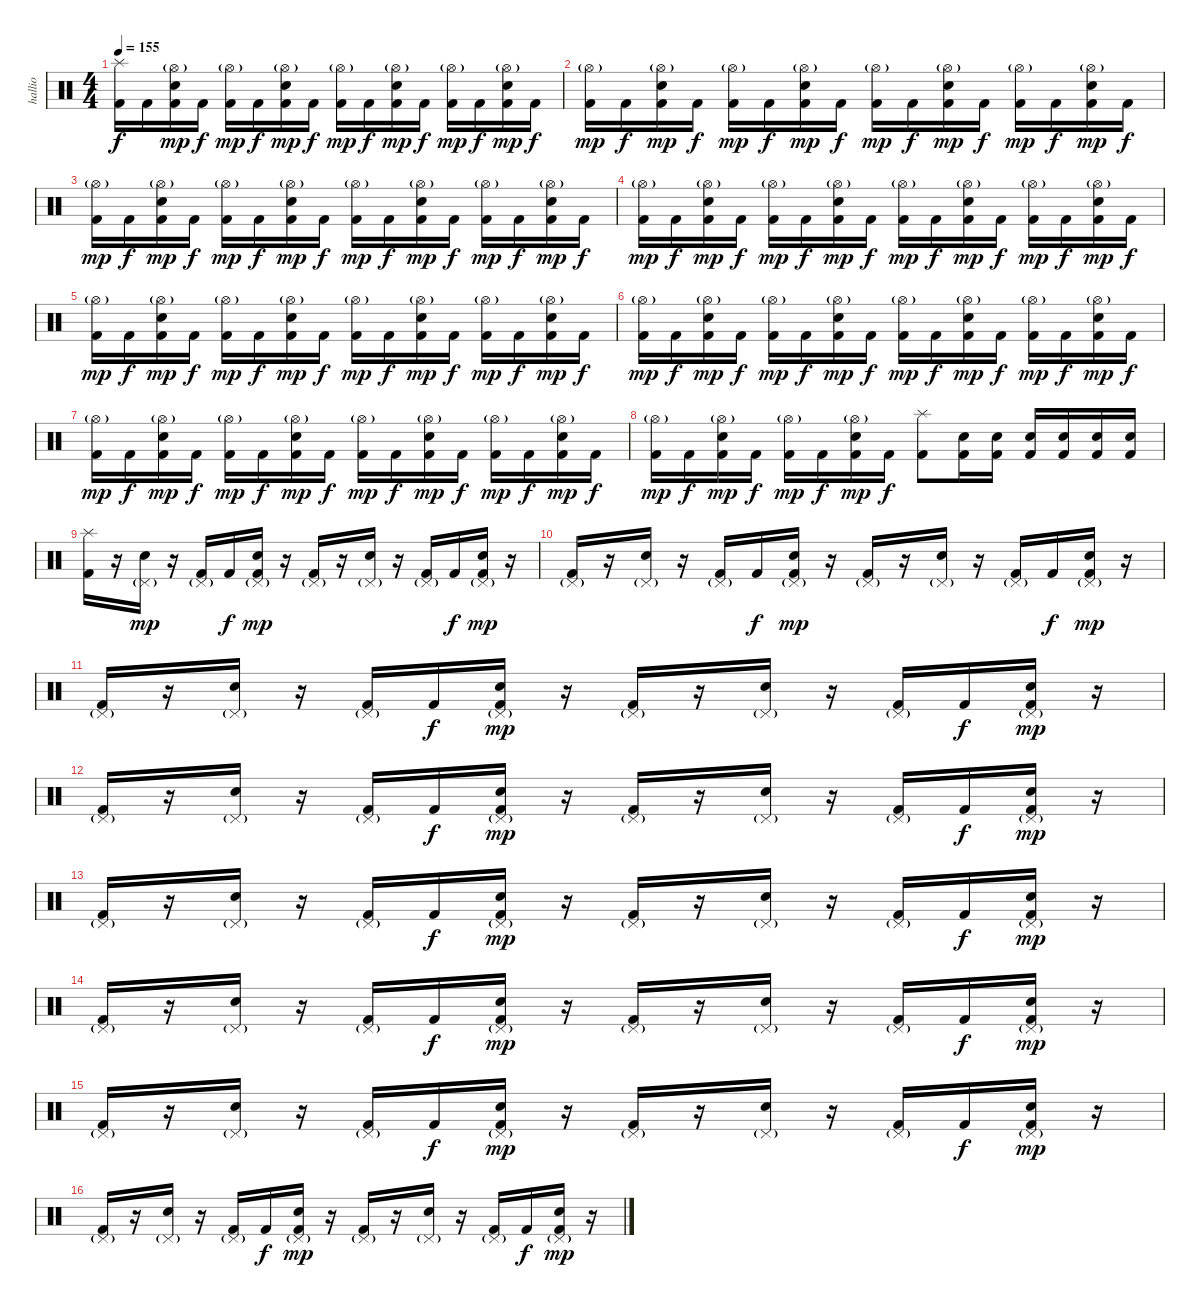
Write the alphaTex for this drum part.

\track ("hallio" "hallio") {instrument percussion}
\staff {score}
\articulation defaults
\ts (4 4)
\tempo 155
\clef neutral
\ks c
("Kick (hit) 2" "Splash (hit)").16{dy f} "Kick (hit) 2".16 ("Kick (hit) 2" "Snare (hit) 2" "Hi-Hat (open)"{g}).16{dy mp} "Kick (hit) 2".16{dy f} ("Kick (hit) 2" "Hi-Hat (open)"{g}).16{dy mp} "Kick (hit) 2".16{dy f} ("Kick (hit) 2" "Snare (hit) 2" "Hi-Hat (open)"{g}).16{dy mp} "Kick (hit) 2".16{dy f} ("Kick (hit) 2" "Hi-Hat (open)"{g}).16{dy mp} "Kick (hit) 2".16{dy f} ("Kick (hit) 2" "Snare (hit) 2" "Hi-Hat (open)"{g}).16{dy mp} "Kick (hit) 2".16{dy f} ("Kick (hit) 2" "Hi-Hat (open)"{g}).16{dy mp} "Kick (hit) 2".16{dy f} ("Kick (hit) 2" "Snare (hit) 2" "Hi-Hat (open)"{g}).16{dy mp} "Kick (hit) 2".16{dy f} |
("Kick (hit) 2" "Hi-Hat (open)"{g}).16{dy mp} "Kick (hit) 2".16{dy f} ("Kick (hit) 2" "Snare (hit) 2" "Hi-Hat (open)"{g}).16{dy mp} "Kick (hit) 2".16{dy f} ("Kick (hit) 2" "Hi-Hat (open)"{g}).16{dy mp} "Kick (hit) 2".16{dy f} ("Kick (hit) 2" "Snare (hit) 2" "Hi-Hat (open)"{g}).16{dy mp} "Kick (hit) 2".16{dy f} ("Kick (hit) 2" "Hi-Hat (open)"{g}).16{dy mp} "Kick (hit) 2".16{dy f} ("Kick (hit) 2" "Snare (hit) 2" "Hi-Hat (open)"{g}).16{dy mp} "Kick (hit) 2".16{dy f} ("Kick (hit) 2" "Hi-Hat (open)"{g}).16{dy mp} "Kick (hit) 2".16{dy f} ("Kick (hit) 2" "Snare (hit) 2" "Hi-Hat (open)"{g}).16{dy mp} "Kick (hit) 2".16{dy f} |
("Kick (hit) 2" "Hi-Hat (open)"{g}).16{dy mp} "Kick (hit) 2".16{dy f} ("Kick (hit) 2" "Snare (hit) 2" "Hi-Hat (open)"{g}).16{dy mp} "Kick (hit) 2".16{dy f} ("Kick (hit) 2" "Hi-Hat (open)"{g}).16{dy mp} "Kick (hit) 2".16{dy f} ("Kick (hit) 2" "Snare (hit) 2" "Hi-Hat (open)"{g}).16{dy mp} "Kick (hit) 2".16{dy f} ("Kick (hit) 2" "Hi-Hat (open)"{g}).16{dy mp} "Kick (hit) 2".16{dy f} ("Kick (hit) 2" "Snare (hit) 2" "Hi-Hat (open)"{g}).16{dy mp} "Kick (hit) 2".16{dy f} ("Kick (hit) 2" "Hi-Hat (open)"{g}).16{dy mp} "Kick (hit) 2".16{dy f} ("Kick (hit) 2" "Snare (hit) 2" "Hi-Hat (open)"{g}).16{dy mp} "Kick (hit) 2".16{dy f} |
("Kick (hit) 2" "Hi-Hat (open)"{g}).16{dy mp} "Kick (hit) 2".16{dy f} ("Kick (hit) 2" "Snare (hit) 2" "Hi-Hat (open)"{g}).16{dy mp} "Kick (hit) 2".16{dy f} ("Kick (hit) 2" "Hi-Hat (open)"{g}).16{dy mp} "Kick (hit) 2".16{dy f} ("Kick (hit) 2" "Snare (hit) 2" "Hi-Hat (open)"{g}).16{dy mp} "Kick (hit) 2".16{dy f} ("Kick (hit) 2" "Hi-Hat (open)"{g}).16{dy mp} "Kick (hit) 2".16{dy f} ("Kick (hit) 2" "Snare (hit) 2" "Hi-Hat (open)"{g}).16{dy mp} "Kick (hit) 2".16{dy f} ("Kick (hit) 2" "Hi-Hat (open)"{g}).16{dy mp} "Kick (hit) 2".16{dy f} ("Kick (hit) 2" "Snare (hit) 2" "Hi-Hat (open)"{g}).16{dy mp} "Kick (hit) 2".16{dy f} |
("Kick (hit) 2" "Hi-Hat (open)"{g}).16{dy mp} "Kick (hit) 2".16{dy f} ("Kick (hit) 2" "Snare (hit) 2" "Hi-Hat (open)"{g}).16{dy mp} "Kick (hit) 2".16{dy f} ("Kick (hit) 2" "Hi-Hat (open)"{g}).16{dy mp} "Kick (hit) 2".16{dy f} ("Kick (hit) 2" "Snare (hit) 2" "Hi-Hat (open)"{g}).16{dy mp} "Kick (hit) 2".16{dy f} ("Kick (hit) 2" "Hi-Hat (open)"{g}).16{dy mp} "Kick (hit) 2".16{dy f} ("Kick (hit) 2" "Snare (hit) 2" "Hi-Hat (open)"{g}).16{dy mp} "Kick (hit) 2".16{dy f} ("Kick (hit) 2" "Hi-Hat (open)"{g}).16{dy mp} "Kick (hit) 2".16{dy f} ("Kick (hit) 2" "Snare (hit) 2" "Hi-Hat (open)"{g}).16{dy mp} "Kick (hit) 2".16{dy f} |
("Kick (hit) 2" "Hi-Hat (open)"{g}).16{dy mp} "Kick (hit) 2".16{dy f} ("Kick (hit) 2" "Snare (hit) 2" "Hi-Hat (open)"{g}).16{dy mp} "Kick (hit) 2".16{dy f} ("Kick (hit) 2" "Hi-Hat (open)"{g}).16{dy mp} "Kick (hit) 2".16{dy f} ("Kick (hit) 2" "Snare (hit) 2" "Hi-Hat (open)"{g}).16{dy mp} "Kick (hit) 2".16{dy f} ("Kick (hit) 2" "Hi-Hat (open)"{g}).16{dy mp} "Kick (hit) 2".16{dy f} ("Kick (hit) 2" "Snare (hit) 2" "Hi-Hat (open)"{g}).16{dy mp} "Kick (hit) 2".16{dy f} ("Kick (hit) 2" "Hi-Hat (open)"{g}).16{dy mp} "Kick (hit) 2".16{dy f} ("Kick (hit) 2" "Snare (hit) 2" "Hi-Hat (open)"{g}).16{dy mp} "Kick (hit) 2".16{dy f} |
("Kick (hit) 2" "Hi-Hat (open)"{g}).16{dy mp} "Kick (hit) 2".16{dy f} ("Kick (hit) 2" "Snare (hit) 2" "Hi-Hat (open)"{g}).16{dy mp} "Kick (hit) 2".16{dy f} ("Kick (hit) 2" "Hi-Hat (open)"{g}).16{dy mp} "Kick (hit) 2".16{dy f} ("Kick (hit) 2" "Snare (hit) 2" "Hi-Hat (open)"{g}).16{dy mp} "Kick (hit) 2".16{dy f} ("Kick (hit) 2" "Hi-Hat (open)"{g}).16{dy mp} "Kick (hit) 2".16{dy f} ("Kick (hit) 2" "Snare (hit) 2" "Hi-Hat (open)"{g}).16{dy mp} "Kick (hit) 2".16{dy f} ("Kick (hit) 2" "Hi-Hat (open)"{g}).16{dy mp} "Kick (hit) 2".16{dy f} ("Kick (hit) 2" "Snare (hit) 2" "Hi-Hat (open)"{g}).16{dy mp} "Kick (hit) 2".16{dy f} |
("Kick (hit) 2" "Hi-Hat (open)"{g}).16{dy mp} "Kick (hit) 2".16{dy f} ("Kick (hit) 2" "Snare (hit) 2" "Hi-Hat (open)"{g}).16{dy mp} "Kick (hit) 2".16{dy f} ("Kick (hit) 2" "Hi-Hat (open)"{g}).16{dy mp} "Kick (hit) 2".16{dy f} ("Kick (hit) 2" "Snare (hit) 2" "Hi-Hat (open)"{g}).16{dy mp} "Kick (hit) 2".16{dy f} ("Kick (hit) 2" "Splash (hit)").8 ("Kick (hit) 2" "Snare (hit) 2").16 ("Kick (hit) 2" "Snare (hit) 2").16 ("Kick (hit) 2" "Snare (hit) 2").16 ("Kick (hit) 2" "Snare (hit) 2").16 ("Kick (hit) 2" "Snare (hit) 2").16 ("Kick (hit) 2" "Snare (hit) 2").16 |
("Kick (hit) 2" "Splash (hit)").16 r.16 ("Snare (hit) 2" "Pedal Hi-Hat (hit)"{g}).16{dy mp} r.16 ("Kick (hit) 2" "Pedal Hi-Hat (hit)"{g}).16 "Kick (hit) 2".16{dy f} ("Kick (hit) 2" "Snare (hit) 2" "Pedal Hi-Hat (hit)"{g}).16{dy mp} r.16 ("Kick (hit) 2" "Pedal Hi-Hat (hit)"{g}).16 r.16 ("Snare (hit) 2" "Pedal Hi-Hat (hit)"{g}).16 r.16 ("Kick (hit) 2" "Pedal Hi-Hat (hit)"{g}).16 "Kick (hit) 2".16{dy f} ("Kick (hit) 2" "Snare (hit) 2" "Pedal Hi-Hat (hit)"{g}).16{dy mp} r.16 |
("Kick (hit) 2" "Pedal Hi-Hat (hit)"{g}).16 r.16 ("Snare (hit) 2" "Pedal Hi-Hat (hit)"{g}).16 r.16 ("Kick (hit) 2" "Pedal Hi-Hat (hit)"{g}).16 "Kick (hit) 2".16{dy f} ("Kick (hit) 2" "Snare (hit) 2" "Pedal Hi-Hat (hit)"{g}).16{dy mp} r.16 ("Kick (hit) 2" "Pedal Hi-Hat (hit)"{g}).16 r.16 ("Snare (hit) 2" "Pedal Hi-Hat (hit)"{g}).16 r.16 ("Kick (hit) 2" "Pedal Hi-Hat (hit)"{g}).16 "Kick (hit) 2".16{dy f} ("Kick (hit) 2" "Snare (hit) 2" "Pedal Hi-Hat (hit)"{g}).16{dy mp} r.16 |
("Kick (hit) 2" "Pedal Hi-Hat (hit)"{g}).16 r.16 ("Snare (hit) 2" "Pedal Hi-Hat (hit)"{g}).16 r.16 ("Kick (hit) 2" "Pedal Hi-Hat (hit)"{g}).16 "Kick (hit) 2".16{dy f} ("Kick (hit) 2" "Snare (hit) 2" "Pedal Hi-Hat (hit)"{g}).16{dy mp} r.16 ("Kick (hit) 2" "Pedal Hi-Hat (hit)"{g}).16 r.16 ("Snare (hit) 2" "Pedal Hi-Hat (hit)"{g}).16 r.16 ("Kick (hit) 2" "Pedal Hi-Hat (hit)"{g}).16 "Kick (hit) 2".16{dy f} ("Kick (hit) 2" "Snare (hit) 2" "Pedal Hi-Hat (hit)"{g}).16{dy mp} r.16 |
("Kick (hit) 2" "Pedal Hi-Hat (hit)"{g}).16 r.16 ("Snare (hit) 2" "Pedal Hi-Hat (hit)"{g}).16 r.16 ("Kick (hit) 2" "Pedal Hi-Hat (hit)"{g}).16 "Kick (hit) 2".16{dy f} ("Kick (hit) 2" "Snare (hit) 2" "Pedal Hi-Hat (hit)"{g}).16{dy mp} r.16 ("Kick (hit) 2" "Pedal Hi-Hat (hit)"{g}).16 r.16 ("Snare (hit) 2" "Pedal Hi-Hat (hit)"{g}).16 r.16 ("Kick (hit) 2" "Pedal Hi-Hat (hit)"{g}).16 "Kick (hit) 2".16{dy f} ("Kick (hit) 2" "Snare (hit) 2" "Pedal Hi-Hat (hit)"{g}).16{dy mp} r.16 |
("Kick (hit) 2" "Pedal Hi-Hat (hit)"{g}).16 r.16 ("Snare (hit) 2" "Pedal Hi-Hat (hit)"{g}).16 r.16 ("Kick (hit) 2" "Pedal Hi-Hat (hit)"{g}).16 "Kick (hit) 2".16{dy f} ("Kick (hit) 2" "Snare (hit) 2" "Pedal Hi-Hat (hit)"{g}).16{dy mp} r.16 ("Kick (hit) 2" "Pedal Hi-Hat (hit)"{g}).16 r.16 ("Snare (hit) 2" "Pedal Hi-Hat (hit)"{g}).16 r.16 ("Kick (hit) 2" "Pedal Hi-Hat (hit)"{g}).16 "Kick (hit) 2".16{dy f} ("Kick (hit) 2" "Snare (hit) 2" "Pedal Hi-Hat (hit)"{g}).16{dy mp} r.16 |
("Kick (hit) 2" "Pedal Hi-Hat (hit)"{g}).16 r.16 ("Snare (hit) 2" "Pedal Hi-Hat (hit)"{g}).16 r.16 ("Kick (hit) 2" "Pedal Hi-Hat (hit)"{g}).16 "Kick (hit) 2".16{dy f} ("Kick (hit) 2" "Snare (hit) 2" "Pedal Hi-Hat (hit)"{g}).16{dy mp} r.16 ("Kick (hit) 2" "Pedal Hi-Hat (hit)"{g}).16 r.16 ("Snare (hit) 2" "Pedal Hi-Hat (hit)"{g}).16 r.16 ("Kick (hit) 2" "Pedal Hi-Hat (hit)"{g}).16 "Kick (hit) 2".16{dy f} ("Kick (hit) 2" "Snare (hit) 2" "Pedal Hi-Hat (hit)"{g}).16{dy mp} r.16 |
("Kick (hit) 2" "Pedal Hi-Hat (hit)"{g}).16 r.16 ("Snare (hit) 2" "Pedal Hi-Hat (hit)"{g}).16 r.16 ("Kick (hit) 2" "Pedal Hi-Hat (hit)"{g}).16 "Kick (hit) 2".16{dy f} ("Kick (hit) 2" "Snare (hit) 2" "Pedal Hi-Hat (hit)"{g}).16{dy mp} r.16 ("Kick (hit) 2" "Pedal Hi-Hat (hit)"{g}).16 r.16 ("Snare (hit) 2" "Pedal Hi-Hat (hit)"{g}).16 r.16 ("Kick (hit) 2" "Pedal Hi-Hat (hit)"{g}).16 "Kick (hit) 2".16{dy f} ("Kick (hit) 2" "Snare (hit) 2" "Pedal Hi-Hat (hit)"{g}).16{dy mp} r.16 |
("Kick (hit) 2" "Pedal Hi-Hat (hit)"{g}).16 r.16 ("Snare (hit) 2" "Pedal Hi-Hat (hit)"{g}).16 r.16 ("Kick (hit) 2" "Pedal Hi-Hat (hit)"{g}).16 "Kick (hit) 2".16{dy f} ("Kick (hit) 2" "Snare (hit) 2" "Pedal Hi-Hat (hit)"{g}).16{dy mp} r.16 ("Kick (hit) 2" "Pedal Hi-Hat (hit)"{g}).16 r.16 ("Snare (hit) 2" "Pedal Hi-Hat (hit)"{g}).16 r.16 ("Kick (hit) 2" "Pedal Hi-Hat (hit)"{g}).16 "Kick (hit) 2".16{dy f} ("Kick (hit) 2" "Snare (hit) 2" "Pedal Hi-Hat (hit)"{g}).16{dy mp} r.16
